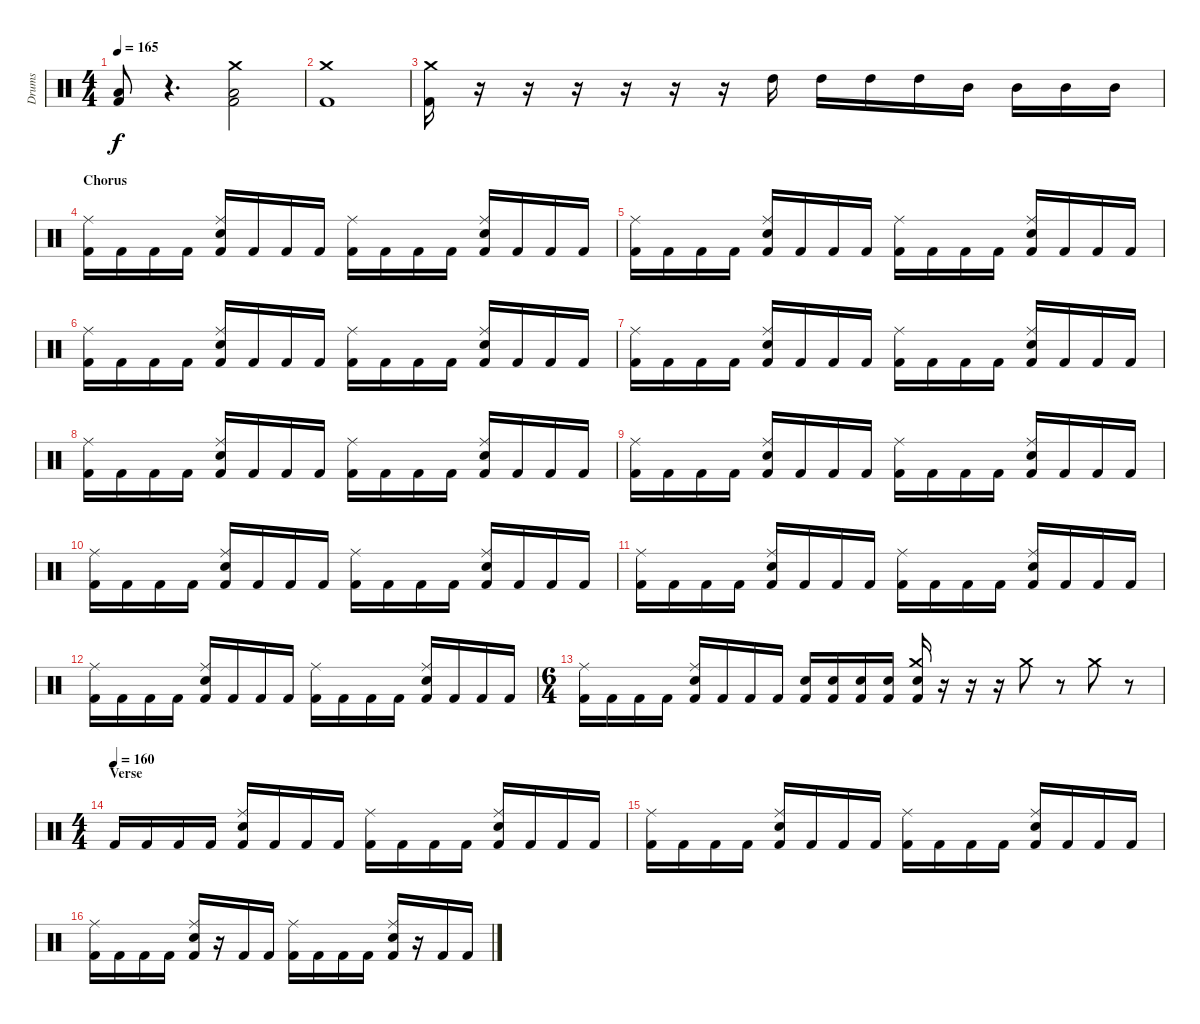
\track ("Drums" "Drums") {instrument percussion}
\staff {score}
\articulation defaults
\ts (4 4)
\tempo 165
\clef neutral
\ks c
("Kick (hit) 2" "Low Tom (hit)").8{dy f} r.4{d} ("Kick (hit) 2" "Low Tom (hit)" "Crash medium (hit)").2 |
("Kick (hit) 2" "Crash medium (hit)").1 |
("Kick (hit) 2" "Crash medium (hit)").16 r.16 r.16 r.16 r.16 r.16 r.16 "High Tom (hit)".16 "High Tom (hit)".16 "High Tom (hit)".16 "High Tom (hit)".16 "Mid Tom (hit)".16 "Mid Tom (hit)".16 "Mid Tom (hit)".16 "Mid Tom (hit)".16 |
\section ("" "Chorus")
("Kick (hit) 2" "Ride (middle)").16 "Kick (hit) 2".16 "Kick (hit) 2".16 "Kick (hit) 2".16 ("Kick (hit) 2" "Electric Snare (hit)" "Ride (middle)").16 "Kick (hit) 2".16 "Kick (hit) 2".16 "Kick (hit) 2".16 ("Kick (hit) 2" "Ride (middle)").16 "Kick (hit) 2".16 "Kick (hit) 2".16 "Kick (hit) 2".16 ("Kick (hit) 2" "Electric Snare (hit)" "Ride (middle)").16 "Kick (hit) 2".16 "Kick (hit) 2".16 "Kick (hit) 2".16 |
("Kick (hit) 2" "Ride (middle)").16 "Kick (hit) 2".16 "Kick (hit) 2".16 "Kick (hit) 2".16 ("Kick (hit) 2" "Electric Snare (hit)" "Ride (middle)").16 "Kick (hit) 2".16 "Kick (hit) 2".16 "Kick (hit) 2".16 ("Kick (hit) 2" "Ride (middle)").16 "Kick (hit) 2".16 "Kick (hit) 2".16 "Kick (hit) 2".16 ("Kick (hit) 2" "Electric Snare (hit)" "Ride (middle)").16 "Kick (hit) 2".16 "Kick (hit) 2".16 "Kick (hit) 2".16 |
("Kick (hit) 2" "Ride (middle)").16 "Kick (hit) 2".16 "Kick (hit) 2".16 "Kick (hit) 2".16 ("Kick (hit) 2" "Electric Snare (hit)" "Ride (middle)").16 "Kick (hit) 2".16 "Kick (hit) 2".16 "Kick (hit) 2".16 ("Kick (hit) 2" "Ride (middle)").16 "Kick (hit) 2".16 "Kick (hit) 2".16 "Kick (hit) 2".16 ("Kick (hit) 2" "Electric Snare (hit)" "Ride (middle)").16 "Kick (hit) 2".16 "Kick (hit) 2".16 "Kick (hit) 2".16 |
("Kick (hit) 2" "Ride (middle)").16 "Kick (hit) 2".16 "Kick (hit) 2".16 "Kick (hit) 2".16 ("Kick (hit) 2" "Electric Snare (hit)" "Ride (middle)").16 "Kick (hit) 2".16 "Kick (hit) 2".16 "Kick (hit) 2".16 ("Kick (hit) 2" "Ride (middle)").16 "Kick (hit) 2".16 "Kick (hit) 2".16 "Kick (hit) 2".16 ("Kick (hit) 2" "Electric Snare (hit)" "Ride (middle)").16 "Kick (hit) 2".16 "Kick (hit) 2".16 "Kick (hit) 2".16 |
("Kick (hit) 2" "Ride (middle)").16 "Kick (hit) 2".16 "Kick (hit) 2".16 "Kick (hit) 2".16 ("Kick (hit) 2" "Electric Snare (hit)" "Ride (middle)").16 "Kick (hit) 2".16 "Kick (hit) 2".16 "Kick (hit) 2".16 ("Kick (hit) 2" "Ride (middle)").16 "Kick (hit) 2".16 "Kick (hit) 2".16 "Kick (hit) 2".16 ("Kick (hit) 2" "Electric Snare (hit)" "Ride (middle)").16 "Kick (hit) 2".16 "Kick (hit) 2".16 "Kick (hit) 2".16 |
("Kick (hit) 2" "Ride (middle)").16 "Kick (hit) 2".16 "Kick (hit) 2".16 "Kick (hit) 2".16 ("Kick (hit) 2" "Electric Snare (hit)" "Ride (middle)").16 "Kick (hit) 2".16 "Kick (hit) 2".16 "Kick (hit) 2".16 ("Kick (hit) 2" "Ride (middle)").16 "Kick (hit) 2".16 "Kick (hit) 2".16 "Kick (hit) 2".16 ("Kick (hit) 2" "Electric Snare (hit)" "Ride (middle)").16 "Kick (hit) 2".16 "Kick (hit) 2".16 "Kick (hit) 2".16 |
("Kick (hit) 2" "Ride (middle)").16 "Kick (hit) 2".16 "Kick (hit) 2".16 "Kick (hit) 2".16 ("Kick (hit) 2" "Electric Snare (hit)" "Ride (middle)").16 "Kick (hit) 2".16 "Kick (hit) 2".16 "Kick (hit) 2".16 ("Kick (hit) 2" "Ride (middle)").16 "Kick (hit) 2".16 "Kick (hit) 2".16 "Kick (hit) 2".16 ("Kick (hit) 2" "Electric Snare (hit)" "Ride (middle)").16 "Kick (hit) 2".16 "Kick (hit) 2".16 "Kick (hit) 2".16 |
("Kick (hit) 2" "Ride (middle)").16 "Kick (hit) 2".16 "Kick (hit) 2".16 "Kick (hit) 2".16 ("Kick (hit) 2" "Electric Snare (hit)" "Ride (middle)").16 "Kick (hit) 2".16 "Kick (hit) 2".16 "Kick (hit) 2".16 ("Kick (hit) 2" "Ride (middle)").16 "Kick (hit) 2".16 "Kick (hit) 2".16 "Kick (hit) 2".16 ("Kick (hit) 2" "Electric Snare (hit)" "Ride (middle)").16 "Kick (hit) 2".16 "Kick (hit) 2".16 "Kick (hit) 2".16 |
("Kick (hit) 2" "Ride (middle)").16 "Kick (hit) 2".16 "Kick (hit) 2".16 "Kick (hit) 2".16 ("Kick (hit) 2" "Electric Snare (hit)" "Ride (middle)").16 "Kick (hit) 2".16 "Kick (hit) 2".16 "Kick (hit) 2".16 ("Kick (hit) 2" "Ride (middle)").16 "Kick (hit) 2".16 "Kick (hit) 2".16 "Kick (hit) 2".16 ("Kick (hit) 2" "Electric Snare (hit)" "Ride (middle)").16 "Kick (hit) 2".16 "Kick (hit) 2".16 "Kick (hit) 2".16 |
\ts (6 4)
("Kick (hit) 2" "Ride (middle)").16 "Kick (hit) 2".16 "Kick (hit) 2".16 "Kick (hit) 2".16 ("Kick (hit) 2" "Electric Snare (hit)" "Ride (middle)").16 "Kick (hit) 2".16 "Kick (hit) 2".16 "Kick (hit) 2".16 ("Kick (hit) 2" "Electric Snare (hit)").16 ("Kick (hit) 2" "Electric Snare (hit)").16 ("Kick (hit) 2" "Electric Snare (hit)").16 ("Kick (hit) 2" "Electric Snare (hit)").16 ("Kick (hit) 2" "Electric Snare (hit)" "Crash medium (hit)").16 r.16 r.16 r.16 "Crash medium (hit)".8 r.8 "Crash medium (hit)".8 r.8 |
\ts (4 4)
\section ("" "Verse")
\tempo (160)
"Kick (hit) 2".16 "Kick (hit) 2".16 "Kick (hit) 2".16 "Kick (hit) 2".16 ("Kick (hit) 2" "Electric Snare (hit)" "Ride (middle)").16 "Kick (hit) 2".16 "Kick (hit) 2".16 "Kick (hit) 2".16 ("Kick (hit) 2" "Ride (middle)").16 "Kick (hit) 2".16 "Kick (hit) 2".16 "Kick (hit) 2".16 ("Kick (hit) 2" "Electric Snare (hit)" "Ride (middle)").16 "Kick (hit) 2".16 "Kick (hit) 2".16 "Kick (hit) 2".16 |
("Kick (hit) 2" "Ride (middle)").16 "Kick (hit) 2".16 "Kick (hit) 2".16 "Kick (hit) 2".16 ("Kick (hit) 2" "Electric Snare (hit)" "Ride (middle)").16 "Kick (hit) 2".16 "Kick (hit) 2".16 "Kick (hit) 2".16 ("Kick (hit) 2" "Ride (middle)").16 "Kick (hit) 2".16 "Kick (hit) 2".16 "Kick (hit) 2".16 ("Kick (hit) 2" "Electric Snare (hit)" "Ride (middle)").16 "Kick (hit) 2".16 "Kick (hit) 2".16 "Kick (hit) 2".16 |
("Kick (hit) 2" "Ride (middle)").16 "Kick (hit) 2".16 "Kick (hit) 2".16 "Kick (hit) 2".16 ("Kick (hit) 2" "Electric Snare (hit)" "Ride (middle)").16 r.16 "Kick (hit) 2".16 "Kick (hit) 2".16 ("Kick (hit) 2" "Ride (middle)").16 "Kick (hit) 2".16 "Kick (hit) 2".16 "Kick (hit) 2".16 ("Kick (hit) 2" "Electric Snare (hit)" "Ride (middle)").16 r.16 "Kick (hit) 2".16 "Kick (hit) 2".16
